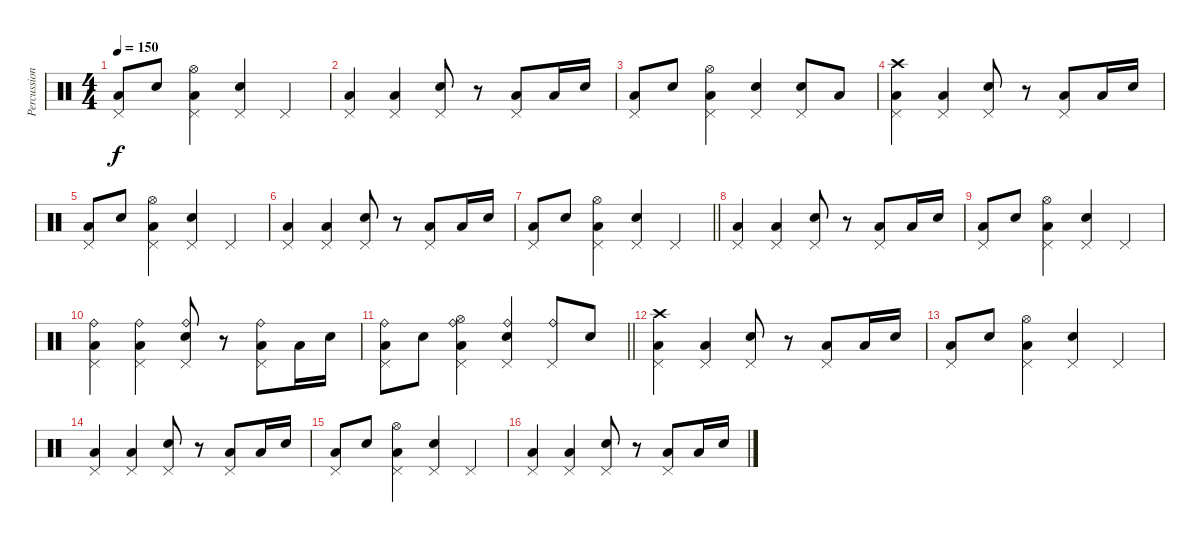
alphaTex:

\track ("Percussions" "Percussion") {instrument percussion}
\staff {score}
\articulation defaults
\ts (4 4)
\tempo 150
\clef neutral
\ks c
("Low Floor Tom (hit)" "Pedal Hi-Hat (hit)").8{dy f} "Electric Snare (hit)".8 ("Low Floor Tom (hit)" "Pedal Hi-Hat (hit)" "Hi-Hat (open)").4 ("Electric Snare (hit)" "Pedal Hi-Hat (hit)").4 "Pedal Hi-Hat (hit)".4 |
("Low Floor Tom (hit)" "Pedal Hi-Hat (hit)").4 ("Low Floor Tom (hit)" "Pedal Hi-Hat (hit)").4 ("Pedal Hi-Hat (hit)" "Electric Snare (hit)").8 r.8 ("Pedal Hi-Hat (hit)" "Low Floor Tom (hit)").8 "Low Floor Tom (hit)".16 "Electric Snare (hit)".16 |
("Low Floor Tom (hit)" "Pedal Hi-Hat (hit)").8 "Electric Snare (hit)".8 ("Low Floor Tom (hit)" "Pedal Hi-Hat (hit)" "Hi-Hat (open)").4 ("Electric Snare (hit)" "Pedal Hi-Hat (hit)").4 ("Pedal Hi-Hat (hit)" "Electric Snare (hit)").8 "Low Floor Tom (hit)".8 |
("Low Floor Tom (hit)" "Pedal Hi-Hat (hit)" "Crash high (hit)").4 ("Low Floor Tom (hit)" "Pedal Hi-Hat (hit)").4 ("Pedal Hi-Hat (hit)" "Electric Snare (hit)").8 r.8 ("Pedal Hi-Hat (hit)" "Low Floor Tom (hit)").8 "Low Floor Tom (hit)".16 "Electric Snare (hit)".16 |
("Low Floor Tom (hit)" "Pedal Hi-Hat (hit)").8 "Electric Snare (hit)".8 ("Low Floor Tom (hit)" "Pedal Hi-Hat (hit)" "Hi-Hat (open)").4 ("Electric Snare (hit)" "Pedal Hi-Hat (hit)").4 "Pedal Hi-Hat (hit)".4 |
("Low Floor Tom (hit)" "Pedal Hi-Hat (hit)").4 ("Low Floor Tom (hit)" "Pedal Hi-Hat (hit)").4 ("Pedal Hi-Hat (hit)" "Electric Snare (hit)").8 r.8 ("Pedal Hi-Hat (hit)" "Low Floor Tom (hit)").8 "Low Floor Tom (hit)".16 "Electric Snare (hit)".16 |
\barLineRight lightlight
("Low Floor Tom (hit)" "Pedal Hi-Hat (hit)").8 "Electric Snare (hit)".8 ("Low Floor Tom (hit)" "Pedal Hi-Hat (hit)" "Hi-Hat (open)").4 ("Electric Snare (hit)" "Pedal Hi-Hat (hit)").4 "Pedal Hi-Hat (hit)".4 |
("Low Floor Tom (hit)" "Pedal Hi-Hat (hit)").4 ("Low Floor Tom (hit)" "Pedal Hi-Hat (hit)").4 ("Pedal Hi-Hat (hit)" "Electric Snare (hit)").8 r.8 ("Pedal Hi-Hat (hit)" "Low Floor Tom (hit)").8 "Low Floor Tom (hit)".16 "Electric Snare (hit)".16 |
("Low Floor Tom (hit)" "Pedal Hi-Hat (hit)").8 "Electric Snare (hit)".8 ("Low Floor Tom (hit)" "Pedal Hi-Hat (hit)" "Hi-Hat (open)").4 ("Electric Snare (hit)" "Pedal Hi-Hat (hit)").4 "Pedal Hi-Hat (hit)".4 |
("Low Floor Tom (hit)" "Pedal Hi-Hat (hit)" "Ride (bell)").4 ("Low Floor Tom (hit)" "Pedal Hi-Hat (hit)" "Ride (bell)").4 ("Pedal Hi-Hat (hit)" "Ride (bell)" "Electric Snare (hit)").8 r.8 ("Ride (bell)" "Pedal Hi-Hat (hit)" "Low Floor Tom (hit)").8 "Low Floor Tom (hit)".16 "Electric Snare (hit)".16 |
\barLineRight lightlight
("Low Floor Tom (hit)" "Pedal Hi-Hat (hit)" "Ride (bell)").8 "Electric Snare (hit)".8 ("Low Floor Tom (hit)" "Pedal Hi-Hat (hit)" "Hi-Hat (open)" "Ride (bell)").4 ("Electric Snare (hit)" "Pedal Hi-Hat (hit)" "Ride (bell)").4 ("Pedal Hi-Hat (hit)" "Ride (bell)").8 "Electric Snare (hit)".8 |
("Low Floor Tom (hit)" "Pedal Hi-Hat (hit)" "Crash high (hit)").4 ("Low Floor Tom (hit)" "Pedal Hi-Hat (hit)").4 ("Pedal Hi-Hat (hit)" "Electric Snare (hit)").8 r.8 ("Pedal Hi-Hat (hit)" "Low Floor Tom (hit)").8 "Low Floor Tom (hit)".16 "Electric Snare (hit)".16 |
("Low Floor Tom (hit)" "Pedal Hi-Hat (hit)").8 "Electric Snare (hit)".8 ("Low Floor Tom (hit)" "Pedal Hi-Hat (hit)" "Hi-Hat (open)").4 ("Electric Snare (hit)" "Pedal Hi-Hat (hit)").4 "Pedal Hi-Hat (hit)".4 |
("Low Floor Tom (hit)" "Pedal Hi-Hat (hit)").4 ("Low Floor Tom (hit)" "Pedal Hi-Hat (hit)").4 ("Pedal Hi-Hat (hit)" "Electric Snare (hit)").8 r.8 ("Pedal Hi-Hat (hit)" "Low Floor Tom (hit)").8 "Low Floor Tom (hit)".16 "Electric Snare (hit)".16 |
("Low Floor Tom (hit)" "Pedal Hi-Hat (hit)").8 "Electric Snare (hit)".8 ("Low Floor Tom (hit)" "Pedal Hi-Hat (hit)" "Hi-Hat (open)").4 ("Electric Snare (hit)" "Pedal Hi-Hat (hit)").4 "Pedal Hi-Hat (hit)".4 |
("Low Floor Tom (hit)" "Pedal Hi-Hat (hit)").4 ("Low Floor Tom (hit)" "Pedal Hi-Hat (hit)").4 ("Pedal Hi-Hat (hit)" "Electric Snare (hit)").8 r.8 ("Pedal Hi-Hat (hit)" "Low Floor Tom (hit)").8 "Low Floor Tom (hit)".16 "Electric Snare (hit)".16
